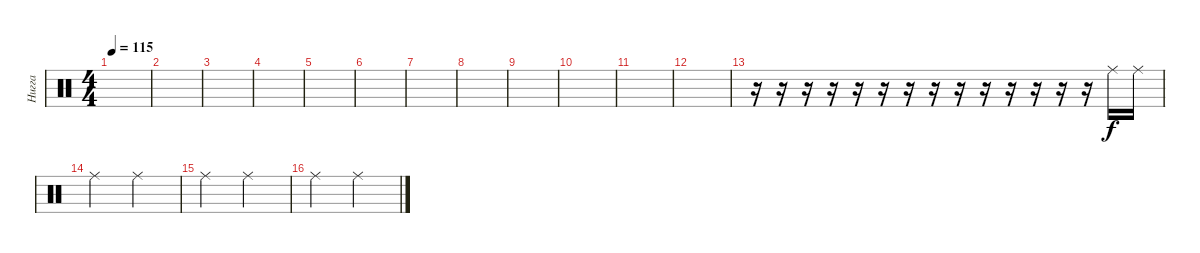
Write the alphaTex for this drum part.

\track ("Нигга" "Нигга") {instrument percussion}
\staff
\articulation defaults
\ts (4 4)
\tempo 115
\clef neutral
\ks c
|
|
|
|
|
|
|
|
|
|
|
|
r.16 r.16 r.16 r.16 r.16 r.16 r.16 r.16 r.16 r.16 r.16 r.16 r.16 r.16 "Ride (middle)".16 "Ride (middle)".16 |
"Ride (middle)".2 "Ride (middle)".2 |
"Ride (middle)".2 "Ride (middle)".2 |
"Ride (middle)".2 "Ride (middle)".2
